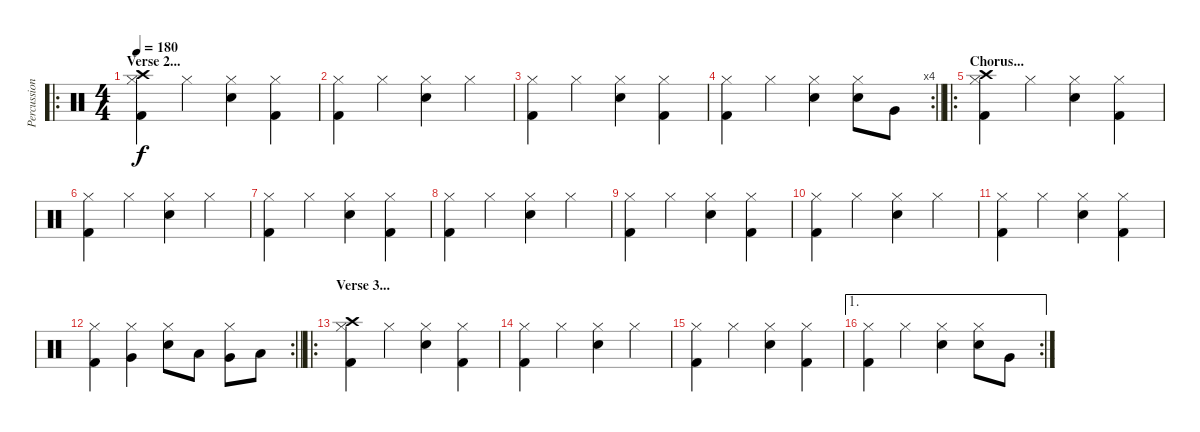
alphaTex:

\track ("Percussion" "Percussion") {instrument percussion}
\staff {score}
\articulation defaults
\ro
\ts (4 4)
\section ("" "Verse 2...")
\tempo 180
\clef neutral
\ks c
("Kick (hit) 2" "Crash high (hit)" "Hi-Hat (closed)").4{dy f} "Hi-Hat (closed)".4 ("Snare (hit) 2" "Hi-Hat (closed)").4 ("Kick (hit) 2" "Hi-Hat (closed)").4 |
("Kick (hit) 2" "Hi-Hat (closed)").4 "Hi-Hat (closed)".4 ("Snare (hit) 2" "Hi-Hat (closed)").4 "Hi-Hat (closed)".4 |
("Kick (hit) 2" "Hi-Hat (closed)").4 "Hi-Hat (closed)".4 ("Snare (hit) 2" "Hi-Hat (closed)").4 ("Kick (hit) 2" "Hi-Hat (closed)").4 |
\rc 4
\barLineRight lightlight
("Kick (hit) 2" "Hi-Hat (closed)").4 "Hi-Hat (closed)".4 ("Snare (hit) 2" "Hi-Hat (closed)").4 ("Snare (hit) 2" "Hi-Hat (closed)").8 "Very Low Tom (hit)".8 |
\ro
\section ("" "Chorus...")
("Kick (hit) 2" "Crash high (hit)" "Hi-Hat (closed)").4 "Hi-Hat (closed)".4 ("Snare (hit) 2" "Hi-Hat (closed)").4 ("Kick (hit) 2" "Hi-Hat (closed)").4 |
("Kick (hit) 2" "Hi-Hat (closed)").4 "Hi-Hat (closed)".4 ("Snare (hit) 2" "Hi-Hat (closed)").4 "Hi-Hat (closed)".4 |
("Kick (hit) 2" "Hi-Hat (closed)").4 "Hi-Hat (closed)".4 ("Snare (hit) 2" "Hi-Hat (closed)").4 ("Kick (hit) 2" "Hi-Hat (closed)").4 |
("Kick (hit) 2" "Hi-Hat (closed)").4 "Hi-Hat (closed)".4 ("Snare (hit) 2" "Hi-Hat (closed)").4 "Hi-Hat (closed)".4 |
("Kick (hit) 2" "Hi-Hat (closed)").4 "Hi-Hat (closed)".4 ("Snare (hit) 2" "Hi-Hat (closed)").4 ("Kick (hit) 2" "Hi-Hat (closed)").4 |
("Kick (hit) 2" "Hi-Hat (closed)").4 "Hi-Hat (closed)".4 ("Snare (hit) 2" "Hi-Hat (closed)").4 "Hi-Hat (closed)".4 |
("Kick (hit) 2" "Hi-Hat (closed)").4 "Hi-Hat (closed)".4 ("Snare (hit) 2" "Hi-Hat (closed)").4 ("Kick (hit) 2" "Hi-Hat (closed)").4 |
\rc 2
\barLineRight lightlight
("Kick (hit) 2" "Hi-Hat (closed)").4 ("Very Low Tom (hit)" "Hi-Hat (closed)").4 ("Snare (hit) 2" "Hi-Hat (closed)").8 "Low Tom (hit)".8 ("Very Low Tom (hit)" "Hi-Hat (closed)").8 "Low Floor Tom (hit)".8 |
\ro
\section ("" "Verse 3...")
("Kick (hit) 2" "Crash high (hit)" "Hi-Hat (closed)").4 "Hi-Hat (closed)".4 ("Snare (hit) 2" "Hi-Hat (closed)").4 ("Kick (hit) 2" "Hi-Hat (closed)").4 |
("Kick (hit) 2" "Hi-Hat (closed)").4 "Hi-Hat (closed)".4 ("Snare (hit) 2" "Hi-Hat (closed)").4 "Hi-Hat (closed)".4 |
("Kick (hit) 2" "Hi-Hat (closed)").4 "Hi-Hat (closed)".4 ("Snare (hit) 2" "Hi-Hat (closed)").4 ("Kick (hit) 2" "Hi-Hat (closed)").4 |
\ae 1
\rc 2
("Kick (hit) 2" "Hi-Hat (closed)").4 "Hi-Hat (closed)".4 ("Snare (hit) 2" "Hi-Hat (closed)").4 ("Snare (hit) 2" "Hi-Hat (closed)").8 "Very Low Tom (hit)".8
